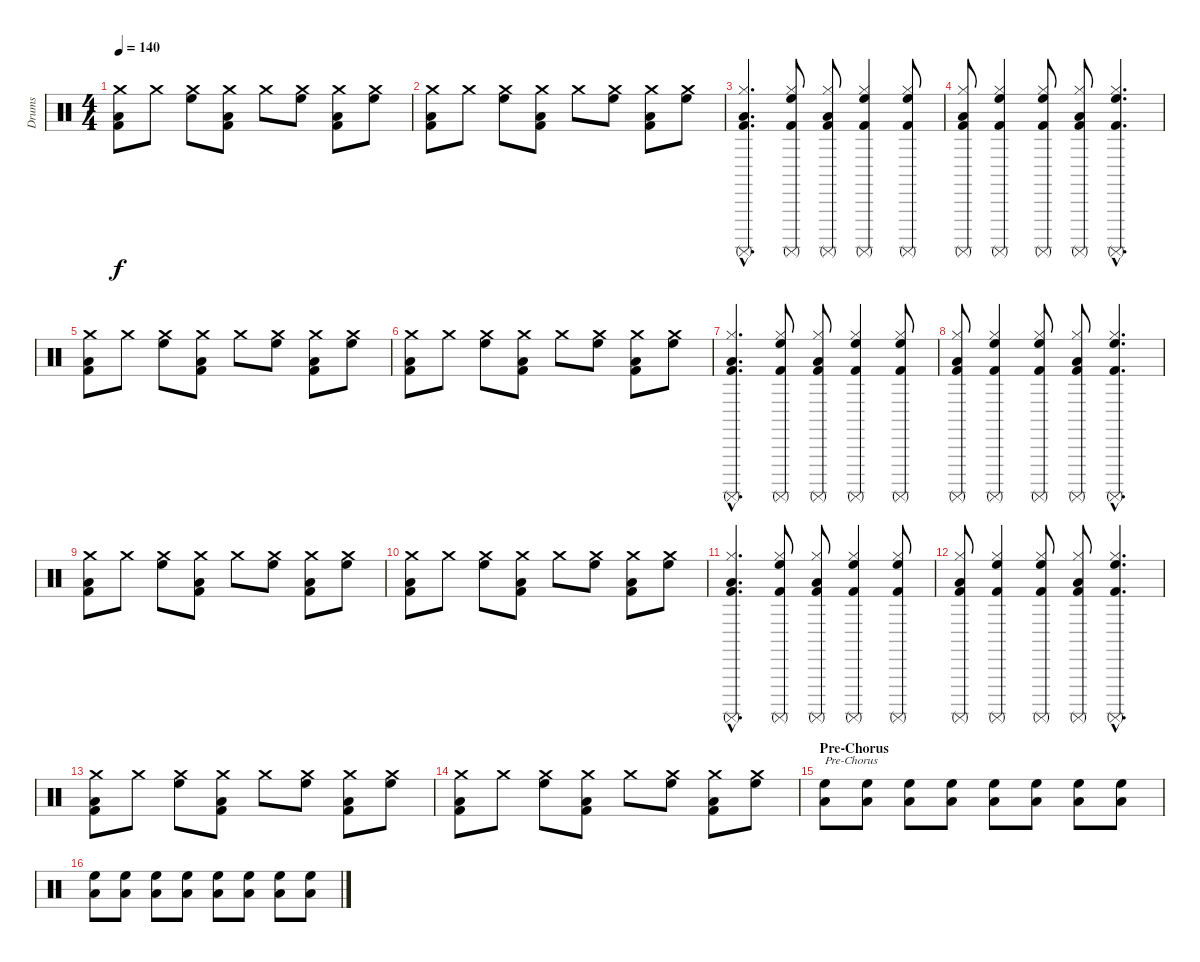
\track ("Drums" "Drums") {instrument percussion}
\staff {score}
\articulation defaults
\ts (4 4)
\tempo 140
\clef neutral
\ks c
("Low Tom (hit)" "Crash medium (hit)" "Kick (hit) 2").8{dy f} "Crash medium (hit)".8 ("High Floor Tom (hit)" "Crash medium (hit)").8 ("Low Tom (hit)" "Crash medium (hit)" "Kick (hit) 2").8 "Crash medium (hit)".8 ("High Floor Tom (hit)" "Crash medium (hit)").8 ("Low Tom (hit)" "Crash medium (hit)" "Kick (hit) 2").8 ("High Floor Tom (hit)" "Crash medium (hit)").8 |
("Low Tom (hit)" "Crash medium (hit)" "Kick (hit) 2").8 "Crash medium (hit)".8 ("High Floor Tom (hit)" "Crash medium (hit)").8 ("Low Tom (hit)" "Crash medium (hit)" "Kick (hit) 2").8 "Crash medium (hit)".8 ("High Floor Tom (hit)" "Crash medium (hit)").8 ("Low Tom (hit)" "Crash medium (hit)" "Kick (hit) 2").8 ("High Floor Tom (hit)" "Crash medium (hit)").8 |
("Low Tom (hit)"{hac} "Hi-Hat (closed)"{hac} "Kick (hit) 2"{hac} "Surdo (mute)"{hac}).4{d} ("High Floor Tom (hit)" "Hi-Hat (closed)" "Kick (hit) 2" "Surdo (mute)").8 ("Low Tom (hit)" "Hi-Hat (closed)" "Kick (hit) 2" "Surdo (mute)").8 ("High Floor Tom (hit)" "Hi-Hat (closed)" "Kick (hit) 2" "Surdo (mute)").4 ("High Floor Tom (hit)" "Hi-Hat (closed)" "Kick (hit) 2" "Surdo (mute)").8 |
("Low Tom (hit)" "Hi-Hat (closed)" "Kick (hit) 2" "Surdo (mute)").8 ("High Floor Tom (hit)" "Hi-Hat (closed)" "Kick (hit) 2" "Surdo (mute)").4 ("High Floor Tom (hit)" "Hi-Hat (closed)" "Kick (hit) 2" "Surdo (mute)").8 ("Low Tom (hit)" "Hi-Hat (closed)" "Kick (hit) 2" "Surdo (mute)").8 ("High Floor Tom (hit)"{hac} "Hi-Hat (closed)"{hac} "Kick (hit) 2"{hac} "Surdo (mute)"{hac}).4{d} |
("Low Tom (hit)" "Crash medium (hit)" "Kick (hit) 2").8 "Crash medium (hit)".8 ("High Floor Tom (hit)" "Crash medium (hit)").8 ("Low Tom (hit)" "Crash medium (hit)" "Kick (hit) 2").8 "Crash medium (hit)".8 ("High Floor Tom (hit)" "Crash medium (hit)").8 ("Low Tom (hit)" "Crash medium (hit)" "Kick (hit) 2").8 ("High Floor Tom (hit)" "Crash medium (hit)").8 |
("Low Tom (hit)" "Crash medium (hit)" "Kick (hit) 2").8 "Crash medium (hit)".8 ("High Floor Tom (hit)" "Crash medium (hit)").8 ("Low Tom (hit)" "Crash medium (hit)" "Kick (hit) 2").8 "Crash medium (hit)".8 ("High Floor Tom (hit)" "Crash medium (hit)").8 ("Low Tom (hit)" "Crash medium (hit)" "Kick (hit) 2").8 ("High Floor Tom (hit)" "Crash medium (hit)").8 |
("Low Tom (hit)"{hac} "Hi-Hat (closed)"{hac} "Kick (hit) 2"{hac} "Surdo (mute)"{hac}).4{d} ("High Floor Tom (hit)" "Hi-Hat (closed)" "Kick (hit) 2" "Surdo (mute)").8 ("Low Tom (hit)" "Hi-Hat (closed)" "Kick (hit) 2" "Surdo (mute)").8 ("High Floor Tom (hit)" "Hi-Hat (closed)" "Kick (hit) 2" "Surdo (mute)").4 ("High Floor Tom (hit)" "Hi-Hat (closed)" "Kick (hit) 2" "Surdo (mute)").8 |
("Low Tom (hit)" "Hi-Hat (closed)" "Kick (hit) 2" "Surdo (mute)").8 ("High Floor Tom (hit)" "Hi-Hat (closed)" "Kick (hit) 2" "Surdo (mute)").4 ("High Floor Tom (hit)" "Hi-Hat (closed)" "Kick (hit) 2" "Surdo (mute)").8 ("Low Tom (hit)" "Hi-Hat (closed)" "Kick (hit) 2" "Surdo (mute)").8 ("High Floor Tom (hit)"{hac} "Hi-Hat (closed)"{hac} "Kick (hit) 2"{hac} "Surdo (mute)"{hac}).4{d} |
("Low Tom (hit)" "Crash medium (hit)" "Kick (hit) 2").8 "Crash medium (hit)".8 ("High Floor Tom (hit)" "Crash medium (hit)").8 ("Low Tom (hit)" "Crash medium (hit)" "Kick (hit) 2").8 "Crash medium (hit)".8 ("High Floor Tom (hit)" "Crash medium (hit)").8 ("Low Tom (hit)" "Crash medium (hit)" "Kick (hit) 2").8 ("High Floor Tom (hit)" "Crash medium (hit)").8 |
("Low Tom (hit)" "Crash medium (hit)" "Kick (hit) 2").8 "Crash medium (hit)".8 ("High Floor Tom (hit)" "Crash medium (hit)").8 ("Low Tom (hit)" "Crash medium (hit)" "Kick (hit) 2").8 "Crash medium (hit)".8 ("High Floor Tom (hit)" "Crash medium (hit)").8 ("Low Tom (hit)" "Crash medium (hit)" "Kick (hit) 2").8 ("High Floor Tom (hit)" "Crash medium (hit)").8 |
("Low Tom (hit)"{hac} "Hi-Hat (closed)"{hac} "Kick (hit) 2"{hac} "Surdo (mute)"{hac}).4{d} ("High Floor Tom (hit)" "Hi-Hat (closed)" "Kick (hit) 2" "Surdo (mute)").8 ("Low Tom (hit)" "Hi-Hat (closed)" "Kick (hit) 2" "Surdo (mute)").8 ("High Floor Tom (hit)" "Hi-Hat (closed)" "Kick (hit) 2" "Surdo (mute)").4 ("High Floor Tom (hit)" "Hi-Hat (closed)" "Kick (hit) 2" "Surdo (mute)").8 |
("Low Tom (hit)" "Hi-Hat (closed)" "Kick (hit) 2" "Surdo (mute)").8 ("High Floor Tom (hit)" "Hi-Hat (closed)" "Kick (hit) 2" "Surdo (mute)").4 ("High Floor Tom (hit)" "Hi-Hat (closed)" "Kick (hit) 2" "Surdo (mute)").8 ("Low Tom (hit)" "Hi-Hat (closed)" "Kick (hit) 2" "Surdo (mute)").8 ("High Floor Tom (hit)"{hac} "Hi-Hat (closed)"{hac} "Kick (hit) 2"{hac} "Surdo (mute)"{hac}).4{d} |
("Low Tom (hit)" "Crash medium (hit)" "Kick (hit) 2").8 "Crash medium (hit)".8 ("High Floor Tom (hit)" "Crash medium (hit)").8 ("Low Tom (hit)" "Crash medium (hit)" "Kick (hit) 2").8 "Crash medium (hit)".8 ("High Floor Tom (hit)" "Crash medium (hit)").8 ("Low Tom (hit)" "Crash medium (hit)" "Kick (hit) 2").8 ("High Floor Tom (hit)" "Crash medium (hit)").8 |
("Low Tom (hit)" "Crash medium (hit)" "Kick (hit) 2").8 "Crash medium (hit)".8 ("High Floor Tom (hit)" "Crash medium (hit)").8 ("Low Tom (hit)" "Crash medium (hit)" "Kick (hit) 2").8 "Crash medium (hit)".8 ("High Floor Tom (hit)" "Crash medium (hit)").8 ("Low Tom (hit)" "Crash medium (hit)" "Kick (hit) 2").8 ("High Floor Tom (hit)" "Crash medium (hit)").8 |
\section ("" "Pre-Chorus")
("Low Tom (hit)" "High Floor Tom (hit)").8{txt "Pre-Chorus"} ("Low Tom (hit)" "High Floor Tom (hit)").8 ("Low Tom (hit)" "High Floor Tom (hit)").8 ("Low Tom (hit)" "High Floor Tom (hit)").8 ("Low Tom (hit)" "High Floor Tom (hit)").8 ("Low Tom (hit)" "High Floor Tom (hit)").8 ("Low Tom (hit)" "High Floor Tom (hit)").8 ("Low Tom (hit)" "High Floor Tom (hit)").8 |
("Low Tom (hit)" "High Floor Tom (hit)").8 ("Low Tom (hit)" "High Floor Tom (hit)").8 ("Low Tom (hit)" "High Floor Tom (hit)").8 ("Low Tom (hit)" "High Floor Tom (hit)").8 ("Low Tom (hit)" "High Floor Tom (hit)").8 ("Low Tom (hit)" "High Floor Tom (hit)").8 ("Low Tom (hit)" "High Floor Tom (hit)").8 ("Low Tom (hit)" "High Floor Tom (hit)").8
